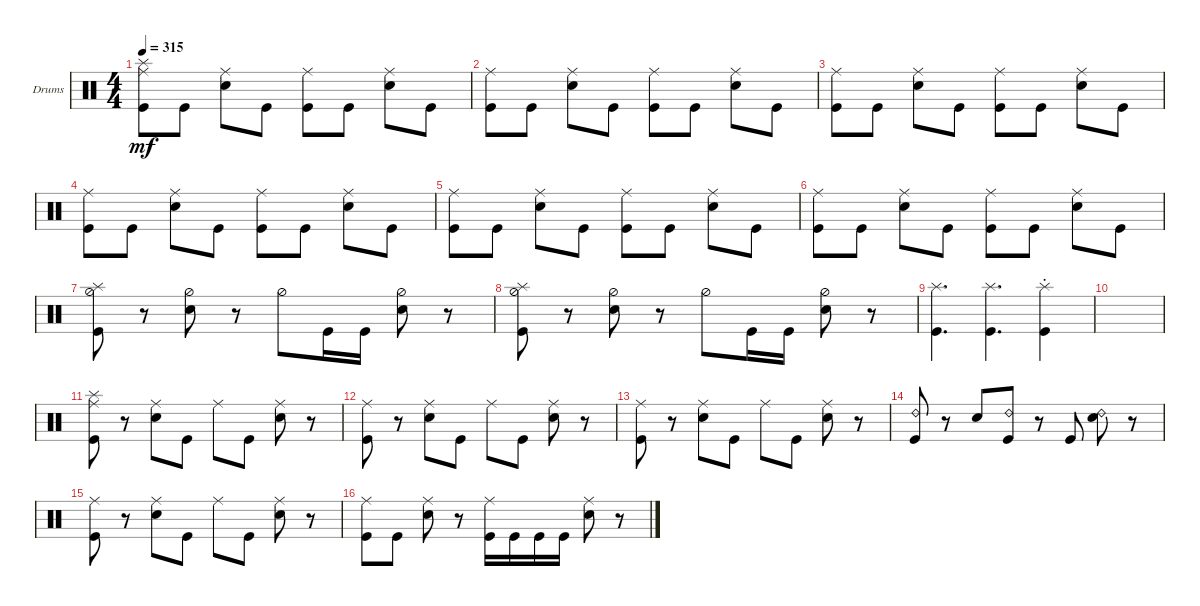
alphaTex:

\bracketExtendMode groupsimilarinstruments
\firstSystemTrackNameOrientation horizontal
\otherSystemsTrackNameOrientation horizontal
\track ("Drumkit" "Drums") {instrument percussion}
\staff {score}
\articulation defaults
\ts (4 4)
\tempo 315
\clef neutral
\ks c
("Kick (hit)" "Splash (hit)" "Ride (middle)").8{dy mf} "Kick (hit)".8 ("Snare (hit) 2" "Ride (middle)").8 "Kick (hit)".8 ("Kick (hit)" "Ride (middle)").8 "Kick (hit)".8 ("Snare (hit) 2" "Ride (middle)").8 "Kick (hit)".8 |
("Kick (hit)" "Ride (middle)").8 "Kick (hit)".8 ("Snare (hit) 2" "Ride (middle)").8 "Kick (hit)".8 ("Kick (hit)" "Ride (middle)").8 "Kick (hit)".8 ("Snare (hit) 2" "Ride (middle)").8 "Kick (hit)".8 |
("Kick (hit)" "Ride (middle)").8 "Kick (hit)".8 ("Snare (hit) 2" "Ride (middle)").8 "Kick (hit)".8 ("Kick (hit)" "Ride (middle)").8 "Kick (hit)".8 ("Snare (hit) 2" "Ride (middle)").8 "Kick (hit)".8 |
("Kick (hit)" "Ride (middle)").8 "Kick (hit)".8 ("Snare (hit) 2" "Ride (middle)").8 "Kick (hit)".8 ("Kick (hit)" "Ride (middle)").8 "Kick (hit)".8 ("Snare (hit) 2" "Ride (middle)").8 "Kick (hit)".8 |
("Kick (hit)" "Ride (middle)").8 "Kick (hit)".8 ("Snare (hit) 2" "Ride (middle)").8 "Kick (hit)".8 ("Kick (hit)" "Ride (middle)").8 "Kick (hit)".8 ("Snare (hit) 2" "Ride (middle)").8 "Kick (hit)".8 |
("Kick (hit)" "Ride (middle)").8 "Kick (hit)".8 ("Snare (hit) 2" "Ride (middle)").8 "Kick (hit)".8 ("Kick (hit)" "Ride (middle)").8 "Kick (hit)".8 ("Snare (hit) 2" "Ride (middle)").8 "Kick (hit)".8 |
("Kick (hit)" "Splash (hit)" "Hi-Hat (half)").8 r.8 ("Snare (hit) 2" "Hi-Hat (half)").8 r.8 "Hi-Hat (half)".8 "Kick (hit)".16 "Kick (hit)".16 ("Snare (hit) 2" "Hi-Hat (half)").8 r.8 |
("Kick (hit)" "Splash (hit)" "Hi-Hat (half)").8 r.8 ("Snare (hit) 2" "Hi-Hat (half)").8 r.8 "Hi-Hat (half)".8 "Kick (hit)".16 "Kick (hit)".16 ("Snare (hit) 2" "Hi-Hat (half)").8 r.8 |
("Kick (hit)" "Splash (hit)").4{d} ("Kick (hit)" "Splash (hit)").4{d} ("Kick (hit)"{st} "Splash (hit)"{st}).4 |
|
("Kick (hit)" "Ride (middle)" "Splash (hit)").8 r.8 ("Snare (hit) 2" "Ride (middle)").8 "Kick (hit)".8 "Ride (middle)".8 "Kick (hit)".8 ("Snare (hit) 2" "Ride (middle)").8 r.8 |
("Kick (hit)" "Ride (middle)").8 r.8 ("Snare (hit) 2" "Ride (middle)").8 "Kick (hit)".8 "Ride (middle)".8 "Kick (hit)".8 ("Snare (hit) 2" "Ride (middle)").8 r.8 |
("Kick (hit)" "Ride (middle)").8 r.8 ("Snare (hit) 2" "Ride (middle)").8 "Kick (hit)".8 "Ride (middle)".8 "Kick (hit)".8 ("Snare (hit) 2" "Ride (middle)").8 r.8 |
("Kick (hit)" "Ride (bell) 2").8 r.8 "Snare (hit) 2".8 ("Kick (hit)" "Ride (bell) 2").8 r.8 "Kick (hit)".8 ("Snare (hit) 2" "Ride (bell) 2").8 r.8 |
("Kick (hit)" "Ride (middle)").8 r.8 ("Snare (hit) 2" "Ride (middle)").8 "Kick (hit)".8 "Ride (middle)".8 "Kick (hit)".8 ("Snare (hit) 2" "Ride (middle)").8 r.8 |
("Kick (hit)" "Ride (middle)").8 "Kick (hit)".8 ("Snare (hit) 2" "Ride (middle)").8 r.8 ("Kick (hit)" "Ride (middle)").16 "Kick (hit)".16 "Kick (hit)".16 "Kick (hit)".16 ("Snare (hit) 2" "Ride (middle)").8 r.8
